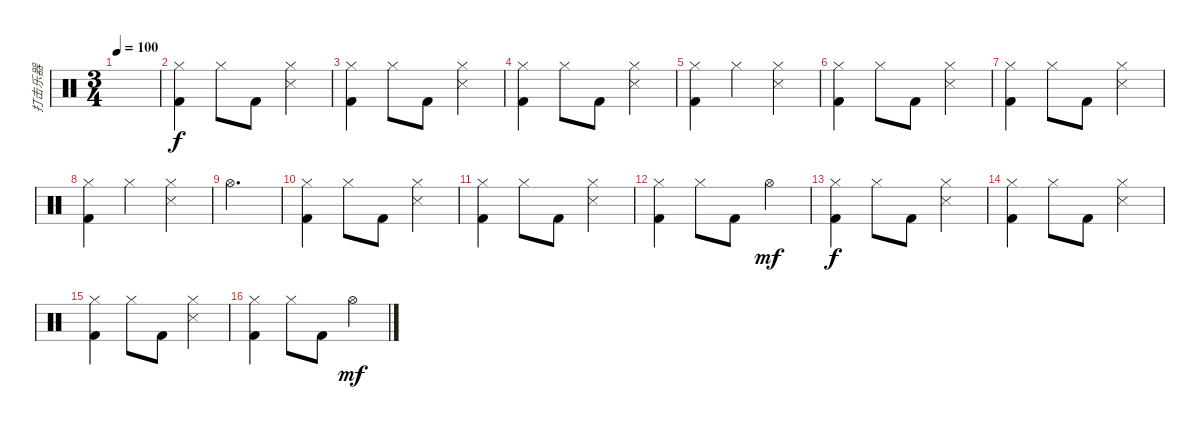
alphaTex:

\track ("打击乐器" "打击乐器") {instrument percussion}
\staff {score}
\articulation defaults
\ts (3 4)
\tempo 100
\clef neutral
\ks c
|
("Hi-Hat (closed)" "Kick (hit) 2").4 "Hi-Hat (closed)".8 "Kick (hit) 2".8 ("Hi-Hat (closed)" "Snare (side stick) 3").4 |
("Hi-Hat (closed)" "Kick (hit) 2").4 "Hi-Hat (closed)".8 "Kick (hit) 2".8 ("Hi-Hat (closed)" "Snare (side stick) 3").4 |
("Hi-Hat (closed)" "Kick (hit) 2").4 "Hi-Hat (closed)".8 "Kick (hit) 2".8 ("Hi-Hat (closed)" "Snare (side stick) 3").4 |
("Hi-Hat (closed)" "Kick (hit) 2").4 "Hi-Hat (closed)".4 ("Hi-Hat (closed)" "Snare (side stick) 3").4 |
("Hi-Hat (closed)" "Kick (hit) 2").4 "Hi-Hat (closed)".8 "Kick (hit) 2".8 ("Hi-Hat (closed)" "Snare (side stick) 3").4 |
("Hi-Hat (closed)" "Kick (hit) 2").4 "Hi-Hat (closed)".8 "Kick (hit) 2".8 ("Hi-Hat (closed)" "Snare (side stick) 3").4 |
("Hi-Hat (closed)" "Kick (hit) 2").4 "Hi-Hat (closed)".4 ("Hi-Hat (closed)" "Snare (side stick) 3").4 |
"Hi-Hat (open)".2{d} |
("Hi-Hat (closed)" "Kick (hit) 2").4 "Hi-Hat (closed)".8 "Kick (hit) 2".8 ("Hi-Hat (closed)" "Snare (side stick) 3").4 |
("Hi-Hat (closed)" "Kick (hit) 2").4 "Hi-Hat (closed)".8 "Kick (hit) 2".8 ("Hi-Hat (closed)" "Snare (side stick) 3").4 |
("Hi-Hat (closed)" "Kick (hit) 2").4 "Hi-Hat (closed)".8 "Kick (hit) 2".8 "Hi-Hat (open)".4{dy mf} |
("Hi-Hat (closed)" "Kick (hit) 2").4{dy f} "Hi-Hat (closed)".8 "Kick (hit) 2".8 ("Hi-Hat (closed)" "Snare (side stick) 3").4 |
("Hi-Hat (closed)" "Kick (hit) 2").4 "Hi-Hat (closed)".8 "Kick (hit) 2".8 ("Hi-Hat (closed)" "Snare (side stick) 3").4 |
("Hi-Hat (closed)" "Kick (hit) 2").4 "Hi-Hat (closed)".8 "Kick (hit) 2".8 ("Hi-Hat (closed)" "Snare (side stick) 3").4 |
("Hi-Hat (closed)" "Kick (hit) 2").4 "Hi-Hat (closed)".8 "Kick (hit) 2".8 "Hi-Hat (open)".4{dy mf}
